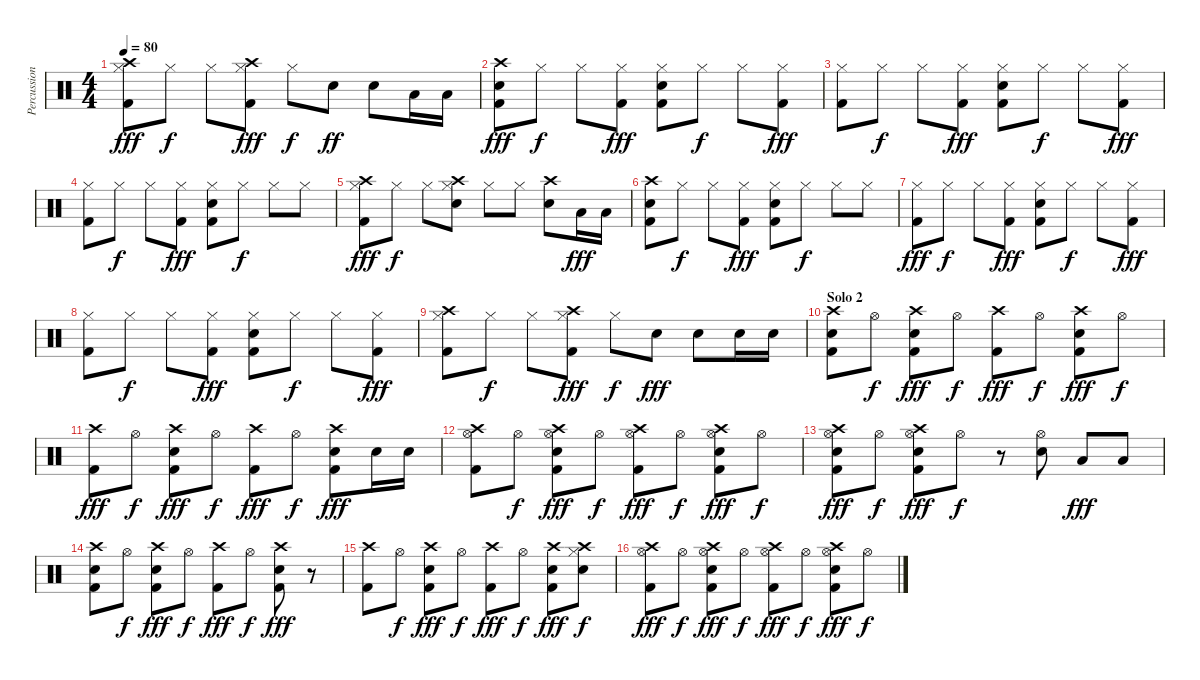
\track ("Percussion" "Percussion") {instrument percussion}
\staff {score}
\articulation defaults
\ts (4 4)
\tempo 80
\clef neutral
\ks c
("Crash high (hit)" "Kick (hit) 2" "Hi-Hat (closed)").8{dy fff} "Hi-Hat (closed)".8{dy f} "Hi-Hat (closed)".8 ("Crash high (hit)" "Kick (hit) 2" "Hi-Hat (closed)").8{dy fff} "Hi-Hat (closed)".8{dy f} "Snare (hit) 2".8{dy ff} "Snare (hit) 2".8 "Low Tom (hit)".16 "Low Floor Tom (hit)".16 |
("Crash high (hit)" "Snare (hit) 2" "Kick (hit) 2").8{dy fff} "Hi-Hat (closed)".8{dy f} "Hi-Hat (closed)".8 ("Kick (hit) 2" "Hi-Hat (closed)").8{dy fff} ("Snare (hit) 2" "Kick (hit) 2" "Hi-Hat (closed)").8 "Hi-Hat (closed)".8{dy f} "Hi-Hat (closed)".8 ("Kick (hit) 2" "Hi-Hat (closed)").8{dy fff} |
("Kick (hit) 2" "Hi-Hat (closed)").8 "Hi-Hat (closed)".8{dy f} "Hi-Hat (closed)".8 ("Kick (hit) 2" "Hi-Hat (closed)").8{dy fff} ("Snare (hit) 2" "Kick (hit) 2" "Hi-Hat (closed)").8 "Hi-Hat (closed)".8{dy f} "Hi-Hat (closed)".8 ("Kick (hit) 2" "Hi-Hat (closed)").8{dy fff} |
("Kick (hit) 2" "Hi-Hat (closed)").8 "Hi-Hat (closed)".8{dy f} "Hi-Hat (closed)".8 ("Kick (hit) 2" "Hi-Hat (closed)").8{dy fff} ("Snare (hit) 2" "Kick (hit) 2" "Hi-Hat (closed)").8 "Hi-Hat (closed)".8{dy f} "Hi-Hat (closed)".8 "Hi-Hat (closed)".8 |
("Crash high (hit)" "Kick (hit) 2" "Hi-Hat (closed)").8{dy fff} "Hi-Hat (closed)".8{dy f} "Hi-Hat (closed)".8 ("Crash high (hit)" "Snare (hit) 2" "Hi-Hat (closed)").8 "Hi-Hat (closed)".8 "Hi-Hat (closed)".8 ("Crash high (hit)" "Snare (hit) 2").8 "Low Tom (hit)".16{dy fff} "Low Floor Tom (hit)".16 |
("Crash high (hit)" "Snare (hit) 2" "Kick (hit) 2").8 "Hi-Hat (closed)".8{dy f} "Hi-Hat (closed)".8 ("Kick (hit) 2" "Hi-Hat (closed)").8{dy fff} ("Snare (hit) 2" "Kick (hit) 2" "Hi-Hat (closed)").8 "Hi-Hat (closed)".8{dy f} "Hi-Hat (closed)".8 "Hi-Hat (closed)".8 |
("Kick (hit) 2" "Hi-Hat (closed)").8{dy fff} "Hi-Hat (closed)".8{dy f} "Hi-Hat (closed)".8 ("Kick (hit) 2" "Hi-Hat (closed)").8{dy fff} ("Snare (hit) 2" "Kick (hit) 2" "Hi-Hat (closed)").8 "Hi-Hat (closed)".8{dy f} "Hi-Hat (closed)".8 ("Kick (hit) 2" "Hi-Hat (closed)").8{dy fff} |
("Kick (hit) 2" "Hi-Hat (closed)").8 "Hi-Hat (closed)".8{dy f} "Hi-Hat (closed)".8 ("Kick (hit) 2" "Hi-Hat (closed)").8{dy fff} ("Snare (hit) 2" "Kick (hit) 2" "Hi-Hat (closed)").8 "Hi-Hat (closed)".8{dy f} "Hi-Hat (closed)".8 ("Kick (hit) 2" "Hi-Hat (closed)").8{dy fff} |
("Crash high (hit)" "Kick (hit) 2" "Hi-Hat (closed)").8 "Hi-Hat (closed)".8{dy f} "Hi-Hat (closed)".8 ("Crash high (hit)" "Kick (hit) 2" "Hi-Hat (closed)").8{dy fff} "Hi-Hat (closed)".8{dy f} "Snare (hit) 2".8{dy fff} "Snare (hit) 2".8 "Snare (hit) 2".16 "Snare (hit) 2".16 |
\section ("" "Solo 2")
("Crash high (hit)" "Snare (hit) 2" "Kick (hit) 2").8 "Hi-Hat (open)".8{dy f} ("Crash high (hit)" "Snare (hit) 2" "Kick (hit) 2").8{dy fff} "Hi-Hat (open)".8{dy f} ("Crash high (hit)" "Kick (hit) 2").8{dy fff} "Hi-Hat (open)".8{dy f} ("Crash high (hit)" "Snare (hit) 2" "Kick (hit) 2").8{dy fff} "Hi-Hat (open)".8{dy f} |
("Crash high (hit)" "Kick (hit) 2").8{dy fff} "Hi-Hat (open)".8{dy f} ("Crash high (hit)" "Snare (hit) 2" "Kick (hit) 2").8{dy fff} "Hi-Hat (open)".8{dy f} ("Crash high (hit)" "Kick (hit) 2").8{dy fff} "Hi-Hat (open)".8{dy f} ("Crash high (hit)" "Snare (hit) 2" "Kick (hit) 2").8{dy fff} "Snare (hit) 2".16 "Snare (hit) 2".16 |
("Crash high (hit)" "Kick (hit) 2" "Hi-Hat (open)").8 "Hi-Hat (open)".8{dy f} ("Crash high (hit)" "Snare (hit) 2" "Kick (hit) 2" "Hi-Hat (open)").8{dy fff} "Hi-Hat (open)".8{dy f} ("Crash high (hit)" "Kick (hit) 2" "Hi-Hat (open)").8{dy fff} "Hi-Hat (open)".8{dy f} ("Crash high (hit)" "Snare (hit) 2" "Kick (hit) 2" "Hi-Hat (open)").8{dy fff} "Hi-Hat (open)".8{dy f} |
("Crash high (hit)" "Snare (hit) 2" "Kick (hit) 2" "Hi-Hat (open)").8{dy fff} "Hi-Hat (open)".8{dy f} ("Crash high (hit)" "Snare (hit) 2" "Kick (hit) 2" "Hi-Hat (open)").8{dy fff} "Hi-Hat (open)".8{dy f} r.8 ("Snare (hit) 2" "Hi-Hat (open)").8 "Low Tom (hit)".8{dy fff} "Low Floor Tom (hit)".8 |
("Crash high (hit)" "Snare (hit) 2" "Kick (hit) 2").8 "Hi-Hat (open)".8{dy f} ("Crash high (hit)" "Snare (hit) 2" "Kick (hit) 2").8{dy fff} "Hi-Hat (open)".8{dy f} ("Crash high (hit)" "Kick (hit) 2").8{dy fff} "Hi-Hat (open)".8{dy f} ("Crash high (hit)" "Snare (hit) 2" "Kick (hit) 2").8{dy fff} r.8 |
("Crash high (hit)" "Kick (hit) 2").8 "Hi-Hat (open)".8{dy f} ("Crash high (hit)" "Snare (hit) 2" "Kick (hit) 2").8{dy fff} "Hi-Hat (open)".8{dy f} ("Crash high (hit)" "Kick (hit) 2").8{dy fff} "Hi-Hat (open)".8{dy f} ("Crash high (hit)" "Snare (hit) 2" "Kick (hit) 2").8{dy fff} ("Crash high (hit)" "Snare (hit) 2" "Hi-Hat (closed)").8{dy f} |
("Crash high (hit)" "Kick (hit) 2" "Hi-Hat (open)").8{dy fff} "Hi-Hat (open)".8{dy f} ("Crash high (hit)" "Snare (hit) 2" "Kick (hit) 2" "Hi-Hat (open)").8{dy fff} "Hi-Hat (open)".8{dy f} ("Crash high (hit)" "Kick (hit) 2" "Hi-Hat (open)").8{dy fff} "Hi-Hat (open)".8{dy f} ("Crash high (hit)" "Snare (hit) 2" "Kick (hit) 2" "Hi-Hat (open)").8{dy fff} "Hi-Hat (open)".8{dy f}
